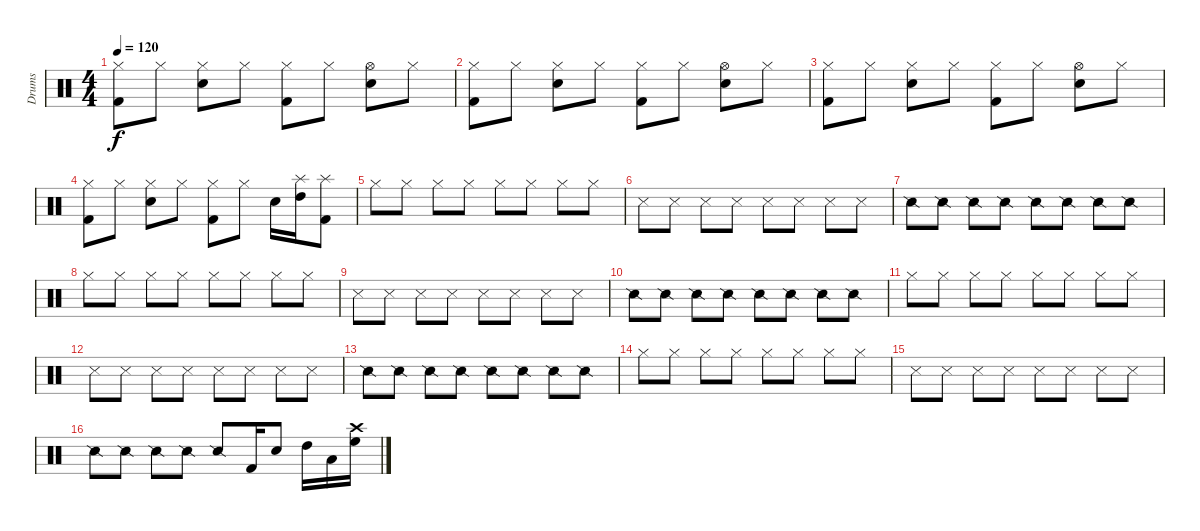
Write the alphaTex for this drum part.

\track ("Drums" "Drums") {instrument percussion}
\staff {score}
\articulation defaults
\ts (4 4)
\tempo 120
\clef neutral
\ks c
("Kick (hit) 2" "Hi-Hat (closed)").8{dy f} "Hi-Hat (closed)".8 ("Snare (hit) 2" "Hi-Hat (closed)").8 "Hi-Hat (closed)".8 ("Kick (hit) 2" "Hi-Hat (closed)").8 "Hi-Hat (closed)".8 ("Snare (hit) 2" "Hi-Hat (open)").8 "Hi-Hat (closed)".8 |
("Kick (hit) 2" "Hi-Hat (closed)").8 "Hi-Hat (closed)".8 ("Snare (hit) 2" "Hi-Hat (closed)").8 "Hi-Hat (closed)".8 ("Kick (hit) 2" "Hi-Hat (closed)").8 "Hi-Hat (closed)".8 ("Snare (hit) 2" "Hi-Hat (open)").8 "Hi-Hat (closed)".8 |
("Kick (hit) 2" "Hi-Hat (closed)").8 "Hi-Hat (closed)".8 ("Snare (hit) 2" "Hi-Hat (closed)").8 "Hi-Hat (closed)".8 ("Kick (hit) 2" "Hi-Hat (closed)").8 "Hi-Hat (closed)".8 ("Snare (hit) 2" "Hi-Hat (open)").8 "Hi-Hat (closed)".8 |
("Kick (hit) 2" "Hi-Hat (closed)").8 "Hi-Hat (closed)".8 ("Snare (hit) 2" "Hi-Hat (closed)").8 "Hi-Hat (closed)".8 ("Kick (hit) 2" "Hi-Hat (closed)").8 "Hi-Hat (closed)".8 "Snare (hit) 2".16 ("Splash (hit)" "High Tom (hit)").16 ("Kick (hit) 2" "Splash (hit)").8 |
"Hi-Hat (closed)".8 "Hi-Hat (closed)".8 "Hi-Hat (closed)".8 "Hi-Hat (closed)".8 "Hi-Hat (closed)".8 "Hi-Hat (closed)".8 "Hi-Hat (closed)".8 "Hi-Hat (closed)".8 |
"Metronome (hit)".8 "Metronome (hit)".8 "Metronome (hit)".8 "Metronome (hit)".8 "Metronome (hit)".8 "Metronome (hit)".8 "Metronome (hit)".8 "Metronome (hit)".8 |
"Snare (side stick) 2".8 "Snare (side stick) 2".8 "Snare (side stick) 2".8 "Snare (side stick) 2".8 "Snare (side stick) 2".8 "Snare (side stick) 2".8 "Snare (side stick) 2".8 "Snare (side stick) 2".8 |
"Hi-Hat (closed)".8 "Hi-Hat (closed)".8 "Hi-Hat (closed)".8 "Hi-Hat (closed)".8 "Hi-Hat (closed)".8 "Hi-Hat (closed)".8 "Hi-Hat (closed)".8 "Hi-Hat (closed)".8 |
"Metronome (hit)".8 "Metronome (hit)".8 "Metronome (hit)".8 "Metronome (hit)".8 "Metronome (hit)".8 "Metronome (hit)".8 "Metronome (hit)".8 "Metronome (hit)".8 |
"Snare (side stick) 2".8 "Snare (side stick) 2".8 "Snare (side stick) 2".8 "Snare (side stick) 2".8 "Snare (side stick) 2".8 "Snare (side stick) 2".8 "Snare (side stick) 2".8 "Snare (side stick) 2".8 |
"Hi-Hat (closed)".8 "Hi-Hat (closed)".8 "Hi-Hat (closed)".8 "Hi-Hat (closed)".8 "Hi-Hat (closed)".8 "Hi-Hat (closed)".8 "Hi-Hat (closed)".8 "Hi-Hat (closed)".8 |
"Metronome (hit)".8 "Metronome (hit)".8 "Metronome (hit)".8 "Metronome (hit)".8 "Metronome (hit)".8 "Metronome (hit)".8 "Metronome (hit)".8 "Metronome (hit)".8 |
"Snare (side stick) 2".8 "Snare (side stick) 2".8 "Snare (side stick) 2".8 "Snare (side stick) 2".8 "Snare (side stick) 2".8 "Snare (side stick) 2".8 "Snare (side stick) 2".8 "Snare (side stick) 2".8 |
"Hi-Hat (closed)".8 "Hi-Hat (closed)".8 "Hi-Hat (closed)".8 "Hi-Hat (closed)".8 "Hi-Hat (closed)".8 "Hi-Hat (closed)".8 "Hi-Hat (closed)".8 "Hi-Hat (closed)".8 |
"Metronome (hit)".8 "Metronome (hit)".8 "Metronome (hit)".8 "Metronome (hit)".8 "Metronome (hit)".8 "Metronome (hit)".8 "Metronome (hit)".8 "Metronome (hit)".8 |
"Snare (side stick) 2".8 "Snare (side stick) 2".8 "Snare (side stick) 2".8 "Snare (side stick) 2".8 "Snare (side stick) 2".8 "Kick (hit) 2".16 "Snare (hit) 2".8 "High Tom (hit)".16 "Low Tom (hit)".16 ("High Floor Tom (hit)" "Crash high (hit)").16
